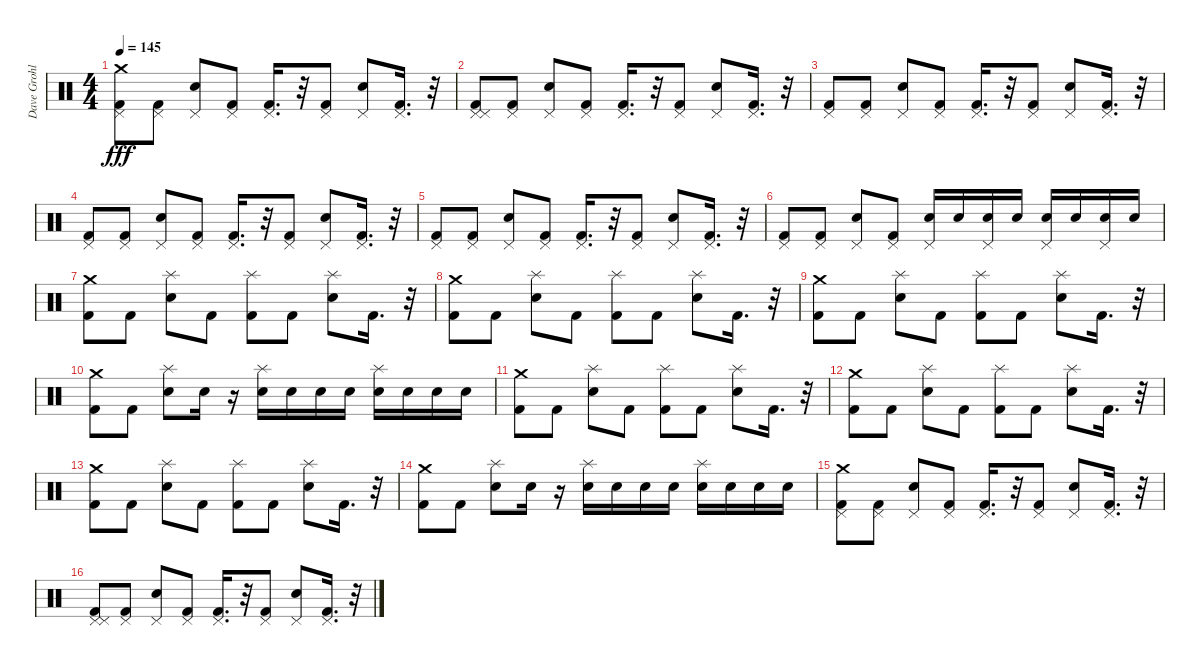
\track ("Dave Grohl - Drums" "Dave Grohl") {instrument percussion}
\staff {score}
\articulation defaults
\ts (4 4)
\tempo 145
\clef neutral
\ks c
("Pedal Hi-Hat (hit)" "Kick (hit) 2" "Crash medium (hit)").8{dy fff} ("Pedal Hi-Hat (hit)" "Kick (hit) 2").8 ("Pedal Hi-Hat (hit)" "Snare (hit) 2").8 ("Pedal Hi-Hat (hit)" "Kick (hit) 2").8 ("Pedal Hi-Hat (hit)" "Kick (hit) 2").16{d} r.32 ("Pedal Hi-Hat (hit)" "Kick (hit) 2").8 ("Pedal Hi-Hat (hit)" "Snare (hit) 2").8 ("Pedal Hi-Hat (hit)" "Kick (hit) 2").16{d} r.32 |
("Pedal Hi-Hat (hit)" "Pedal Hi-Hat (hit)" "Kick (hit) 2").8 ("Pedal Hi-Hat (hit)" "Kick (hit) 2").8 ("Pedal Hi-Hat (hit)" "Snare (hit) 2").8 ("Pedal Hi-Hat (hit)" "Kick (hit) 2").8 ("Pedal Hi-Hat (hit)" "Kick (hit) 2").16{d} r.32 ("Pedal Hi-Hat (hit)" "Kick (hit) 2").8 ("Pedal Hi-Hat (hit)" "Snare (hit) 2").8 ("Pedal Hi-Hat (hit)" "Kick (hit) 2").16{d} r.32 |
("Pedal Hi-Hat (hit)" "Kick (hit) 2").8 ("Pedal Hi-Hat (hit)" "Kick (hit) 2").8 ("Pedal Hi-Hat (hit)" "Snare (hit) 2").8 ("Pedal Hi-Hat (hit)" "Kick (hit) 2").8 ("Pedal Hi-Hat (hit)" "Kick (hit) 2").16{d} r.32 ("Pedal Hi-Hat (hit)" "Kick (hit) 2").8 ("Pedal Hi-Hat (hit)" "Snare (hit) 2").8 ("Pedal Hi-Hat (hit)" "Kick (hit) 2").16{d} r.32 |
("Pedal Hi-Hat (hit)" "Kick (hit) 2").8 ("Pedal Hi-Hat (hit)" "Kick (hit) 2").8 ("Pedal Hi-Hat (hit)" "Snare (hit) 2").8 ("Pedal Hi-Hat (hit)" "Kick (hit) 2").8 ("Pedal Hi-Hat (hit)" "Kick (hit) 2").16{d} r.32 ("Pedal Hi-Hat (hit)" "Kick (hit) 2").8 ("Pedal Hi-Hat (hit)" "Snare (hit) 2").8 ("Pedal Hi-Hat (hit)" "Kick (hit) 2").16{d} r.32 |
("Pedal Hi-Hat (hit)" "Kick (hit) 2").8 ("Pedal Hi-Hat (hit)" "Kick (hit) 2").8 ("Pedal Hi-Hat (hit)" "Snare (hit) 2").8 ("Pedal Hi-Hat (hit)" "Kick (hit) 2").8 ("Pedal Hi-Hat (hit)" "Kick (hit) 2").16{d} r.32 ("Pedal Hi-Hat (hit)" "Kick (hit) 2").8 ("Pedal Hi-Hat (hit)" "Snare (hit) 2").8 ("Pedal Hi-Hat (hit)" "Kick (hit) 2").16{d} r.32 |
("Pedal Hi-Hat (hit)" "Kick (hit) 2").8 ("Pedal Hi-Hat (hit)" "Kick (hit) 2").8 ("Pedal Hi-Hat (hit)" "Snare (hit) 2").8 ("Pedal Hi-Hat (hit)" "Kick (hit) 2").8 ("Pedal Hi-Hat (hit)" "Snare (hit) 2").16 "Snare (hit) 2".16 ("Pedal Hi-Hat (hit)" "Snare (hit) 2").16 "Snare (hit) 2".16 ("Pedal Hi-Hat (hit)" "Snare (hit) 2").16 "Snare (hit) 2".16 ("Pedal Hi-Hat (hit)" "Snare (hit) 2").16 "Snare (hit) 2".16 |
("Kick (hit) 2" "Crash medium (hit)").8 "Kick (hit) 2".8 ("Splash (hit)" "Snare (hit) 2").8 "Kick (hit) 2".8 ("Splash (hit)" "Kick (hit) 2").8 "Kick (hit) 2".8 ("Splash (hit)" "Snare (hit) 2").8 "Kick (hit) 2".16{d} r.32 |
("Kick (hit) 2" "Crash medium (hit)").8 "Kick (hit) 2".8 ("Splash (hit)" "Snare (hit) 2").8 "Kick (hit) 2".8 ("Splash (hit)" "Kick (hit) 2").8 "Kick (hit) 2".8 ("Splash (hit)" "Snare (hit) 2").8 "Kick (hit) 2".16{d} r.32 |
("Kick (hit) 2" "Crash medium (hit)").8 "Kick (hit) 2".8 ("Splash (hit)" "Snare (hit) 2").8 "Kick (hit) 2".8 ("Splash (hit)" "Kick (hit) 2").8 "Kick (hit) 2".8 ("Splash (hit)" "Snare (hit) 2").8 "Kick (hit) 2".16{d} r.32 |
("Kick (hit) 2" "Crash medium (hit)").8 "Kick (hit) 2".8 ("Splash (hit)" "Snare (hit) 2").8 "Snare (hit) 2".16 r.16 ("Splash (hit)" "Snare (hit) 2").16 "Snare (hit) 2".16 "Snare (hit) 2".16 "Snare (hit) 2".16 ("Splash (hit)" "Snare (hit) 2").16 "Snare (hit) 2".16 "Snare (hit) 2".16 "Snare (hit) 2".16 |
("Kick (hit) 2" "Crash medium (hit)").8 "Kick (hit) 2".8 ("Splash (hit)" "Snare (hit) 2").8 "Kick (hit) 2".8 ("Splash (hit)" "Kick (hit) 2").8 "Kick (hit) 2".8 ("Splash (hit)" "Snare (hit) 2").8 "Kick (hit) 2".16{d} r.32 |
("Kick (hit) 2" "Crash medium (hit)").8 "Kick (hit) 2".8 ("Splash (hit)" "Snare (hit) 2").8 "Kick (hit) 2".8 ("Splash (hit)" "Kick (hit) 2").8 "Kick (hit) 2".8 ("Splash (hit)" "Snare (hit) 2").8 "Kick (hit) 2".16{d} r.32 |
("Kick (hit) 2" "Crash medium (hit)").8 "Kick (hit) 2".8 ("Splash (hit)" "Snare (hit) 2").8 "Kick (hit) 2".8 ("Splash (hit)" "Kick (hit) 2").8 "Kick (hit) 2".8 ("Splash (hit)" "Snare (hit) 2").8 "Kick (hit) 2".16{d} r.32 |
("Kick (hit) 2" "Crash medium (hit)").8 "Kick (hit) 2".8 ("Splash (hit)" "Snare (hit) 2").8 "Snare (hit) 2".16 r.16 ("Splash (hit)" "Snare (hit) 2").16 "Snare (hit) 2".16 "Snare (hit) 2".16 "Snare (hit) 2".16 ("Splash (hit)" "Snare (hit) 2").16 "Snare (hit) 2".16 "Snare (hit) 2".16 "Snare (hit) 2".16 |
("Pedal Hi-Hat (hit)" "Kick (hit) 2" "Crash medium (hit)").8 ("Pedal Hi-Hat (hit)" "Kick (hit) 2").8 ("Pedal Hi-Hat (hit)" "Snare (hit) 2").8 ("Pedal Hi-Hat (hit)" "Kick (hit) 2").8 ("Pedal Hi-Hat (hit)" "Kick (hit) 2").16{d} r.32 ("Pedal Hi-Hat (hit)" "Kick (hit) 2").8 ("Pedal Hi-Hat (hit)" "Snare (hit) 2").8 ("Pedal Hi-Hat (hit)" "Kick (hit) 2").16{d} r.32 |
("Pedal Hi-Hat (hit)" "Pedal Hi-Hat (hit)" "Kick (hit) 2").8 ("Pedal Hi-Hat (hit)" "Kick (hit) 2").8 ("Pedal Hi-Hat (hit)" "Snare (hit) 2").8 ("Pedal Hi-Hat (hit)" "Kick (hit) 2").8 ("Pedal Hi-Hat (hit)" "Kick (hit) 2").16{d} r.32 ("Pedal Hi-Hat (hit)" "Kick (hit) 2").8 ("Pedal Hi-Hat (hit)" "Snare (hit) 2").8 ("Pedal Hi-Hat (hit)" "Kick (hit) 2").16{d} r.32
